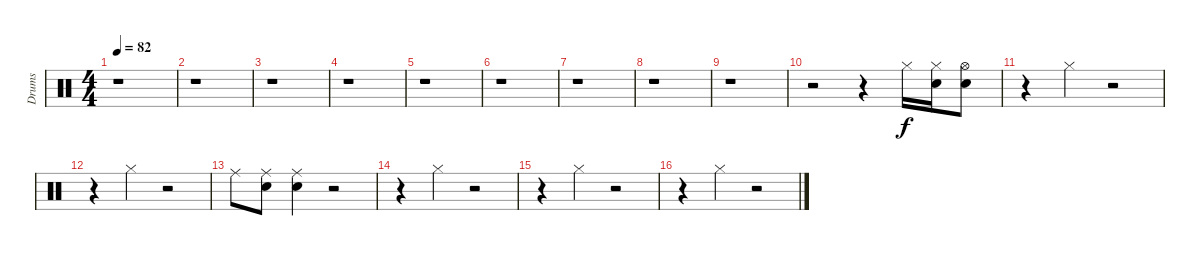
\track ("Drums" "Drums") {instrument percussion}
\staff {score}
\articulation defaults
\ts (4 4)
\tempo 82
\clef neutral
\ks c
r.1{dy f} |
r.1 |
r.1 |
r.1 |
r.1 |
r.1 |
r.1 |
r.1 |
r.1 |
r.2 r.4 "Hi-Hat (closed)".16 ("Snare (hit)" "Hi-Hat (closed)").16 ("Snare (hit)" "Hi-Hat (open)").8 |
r.4 "Hi-Hat (closed)".4 r.2 |
r.4 "Hi-Hat (closed)".4 r.2 |
"Ride (middle)".8 ("Snare (hit)" "Ride (middle)").8 ("Snare (hit)" "Ride (middle)").4 r.2 |
r.4 "Hi-Hat (closed)".4 r.2 |
r.4 "Hi-Hat (closed)".4 r.2 |
r.4 "Hi-Hat (closed)".4 r.2
